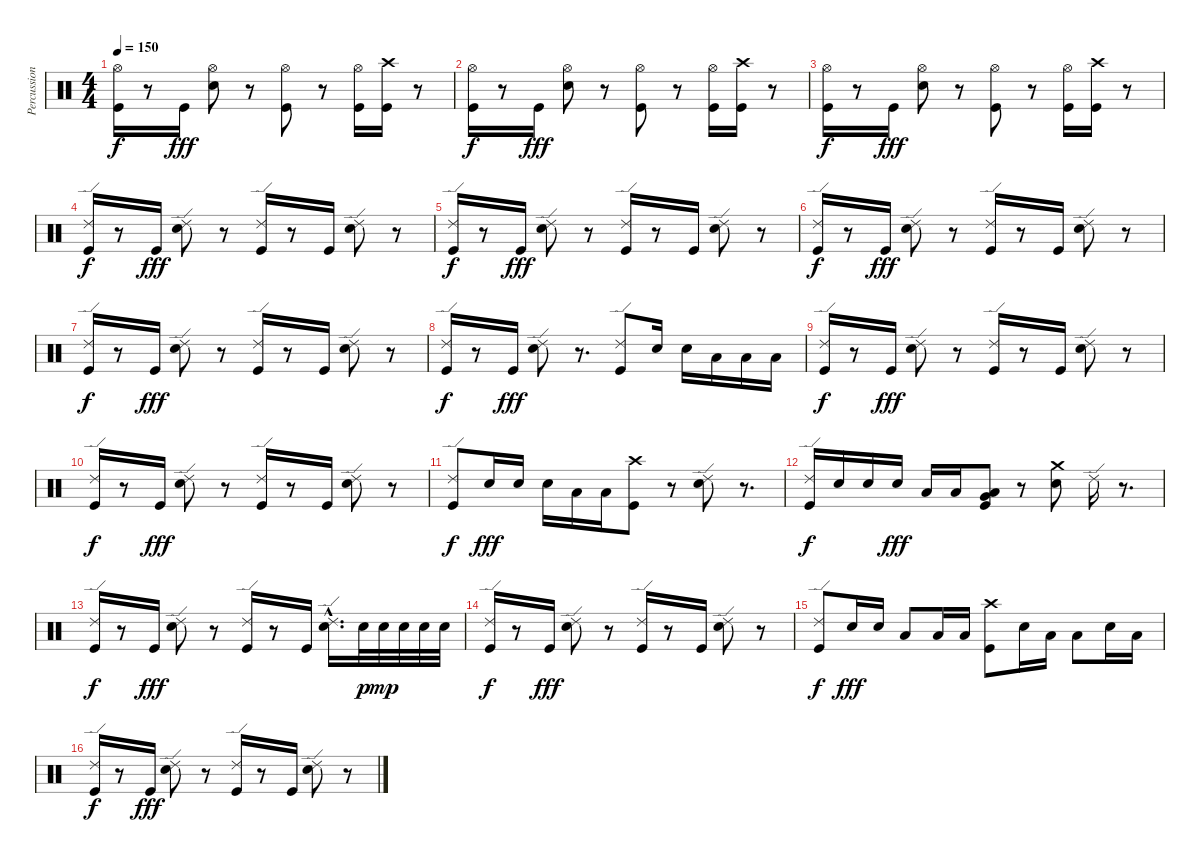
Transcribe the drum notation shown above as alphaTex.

\track ("Percussion" "Percussion") {instrument percussion}
\staff {score}
\articulation defaults
\ts (4 4)
\tempo 150
\clef neutral
\ks c
("Kick (hit)" "Hi-Hat (open)").16{dy f} r.8 "Kick (hit)".16{dy fff} ("Electric Snare (hit)" "Hi-Hat (open)").8 r.8 ("Kick (hit)" "Hi-Hat (open)").8 r.8 ("Kick (hit)" "Hi-Hat (open)").16 ("Kick (hit)" "Crash high (hit)").16 r.8 |
("Kick (hit)" "Hi-Hat (open)").16{dy f} r.8 "Kick (hit)".16{dy fff} ("Electric Snare (hit)" "Hi-Hat (open)").8 r.8 ("Kick (hit)" "Hi-Hat (open)").8 r.8 ("Kick (hit)" "Hi-Hat (open)").16 ("Kick (hit)" "Crash high (hit)").16 r.8 |
("Kick (hit)" "Hi-Hat (open)").16{dy f} r.8 "Kick (hit)".16{dy fff} ("Electric Snare (hit)" "Hi-Hat (open)").8 r.8 ("Kick (hit)" "Hi-Hat (open)").8 r.8 ("Kick (hit)" "Hi-Hat (open)").16 ("Kick (hit)" "Crash high (hit)").16 r.8 |
("Kick (hit)" "Ride (edge) 2").16{dy f} r.8 "Kick (hit)".16{dy fff} ("Electric Snare (hit)" "Ride (edge) 2").8 r.8 ("Kick (hit)" "Ride (edge) 2").16 r.8 "Kick (hit)".16 ("Electric Snare (hit)" "Ride (edge) 2").8 r.8 |
("Kick (hit)" "Ride (edge) 2").16{dy f} r.8 "Kick (hit)".16{dy fff} ("Electric Snare (hit)" "Ride (edge) 2").8 r.8 ("Kick (hit)" "Ride (edge) 2").16 r.8 "Kick (hit)".16 ("Electric Snare (hit)" "Ride (edge) 2").8 r.8 |
("Kick (hit)" "Ride (edge) 2").16{dy f} r.8 "Kick (hit)".16{dy fff} ("Electric Snare (hit)" "Ride (edge) 2").8 r.8 ("Kick (hit)" "Ride (edge) 2").16 r.8 "Kick (hit)".16 ("Electric Snare (hit)" "Ride (edge) 2").8 r.8 |
("Kick (hit)" "Ride (edge) 2").16{dy f} r.8 "Kick (hit)".16{dy fff} ("Electric Snare (hit)" "Ride (edge) 2").8 r.8 ("Kick (hit)" "Ride (edge) 2").16 r.8 "Kick (hit)".16 ("Electric Snare (hit)" "Ride (edge) 2").8 r.8 |
("Kick (hit)" "Ride (edge) 2").16{dy f} r.8 "Kick (hit)".16{dy fff} ("Electric Snare (hit)" "Ride (edge) 2").8 r.8{d} ("Kick (hit)" "Ride (edge) 2").8 "Electric Snare (hit)".16 "Electric Snare (hit)".16 "Low Tom (hit)".16 "Low Tom (hit)".16 "Low Tom (hit)".16 |
("Kick (hit)" "Ride (edge) 2").16{dy f} r.8 "Kick (hit)".16{dy fff} ("Electric Snare (hit)" "Ride (edge) 2").8 r.8 ("Kick (hit)" "Ride (edge) 2").16 r.8 "Kick (hit)".16 ("Electric Snare (hit)" "Ride (edge) 2").8 r.8 |
("Kick (hit)" "Ride (edge) 2").16{dy f} r.8 "Kick (hit)".16{dy fff} ("Electric Snare (hit)" "Ride (edge) 2").8 r.8 ("Kick (hit)" "Ride (edge) 2").16 r.8 "Kick (hit)".16 ("Electric Snare (hit)" "Ride (edge) 2").8 r.8 |
("Kick (hit)" "Ride (edge) 2").8{dy f} "Electric Snare (hit)".16{dy fff} "Electric Snare (hit)".16 "Electric Snare (hit)".16 "Low Tom (hit)".16 "Low Tom (hit)".16 ("Crash high (hit)" "Kick (hit)").8 r.8 ("Ride (edge) 2" "Electric Snare (hit)").8 r.8{d} |
("Kick (hit)" "Ride (edge) 2").16{dy f} "Electric Snare (hit)".16 "Electric Snare (hit)".16 "Electric Snare (hit)".16{dy fff} "Low Tom (hit)".16 "Low Tom (hit)".16 ("Very Low Tom (hit)" "Kick (hit)" "Low Tom (hit)").8 r.8 ("Electric Snare (hit)" "Crash medium (hit)").8 "Ride (edge) 2".16 r.8{d} |
("Kick (hit)" "Ride (edge) 2").16{dy f} r.8 "Kick (hit)".16{dy fff} ("Electric Snare (hit)" "Ride (edge) 2").8 r.8 ("Ride (edge) 2" "Kick (hit)").16 r.8 "Kick (hit)".16 ("Ride (edge) 2"{hac} "Electric Snare (hit)"{hac}).16{d} "Electric Snare (hit)".32{dy p} "Electric Snare (hit)".32{dy mp} "Electric Snare (hit)".32 "Electric Snare (hit)".32 "Electric Snare (hit)".32 |
("Kick (hit)" "Ride (edge) 2").16{dy f} r.8 "Kick (hit)".16{dy fff} ("Electric Snare (hit)" "Ride (edge) 2").8 r.8 ("Kick (hit)" "Ride (edge) 2").16 r.8 "Kick (hit)".16 ("Electric Snare (hit)" "Ride (edge) 2").8 r.8 |
("Kick (hit)" "Ride (edge) 2").8{dy f} "Electric Snare (hit)".16{dy fff} "Electric Snare (hit)".16 "Low Tom (hit)".8 "Low Tom (hit)".16 "Low Tom (hit)".16 ("Kick (hit)" "Crash high (hit)").8 "Electric Snare (hit)".16 "Low Tom (hit)".16 "Low Tom (hit)".8 "Electric Snare (hit)".16 "Low Tom (hit)".16 |
("Kick (hit)" "Ride (edge) 2").16{dy f} r.8 "Kick (hit)".16{dy fff} ("Electric Snare (hit)" "Ride (edge) 2").8 r.8 ("Kick (hit)" "Ride (edge) 2").16 r.8 "Kick (hit)".16 ("Electric Snare (hit)" "Ride (edge) 2").8 r.8
